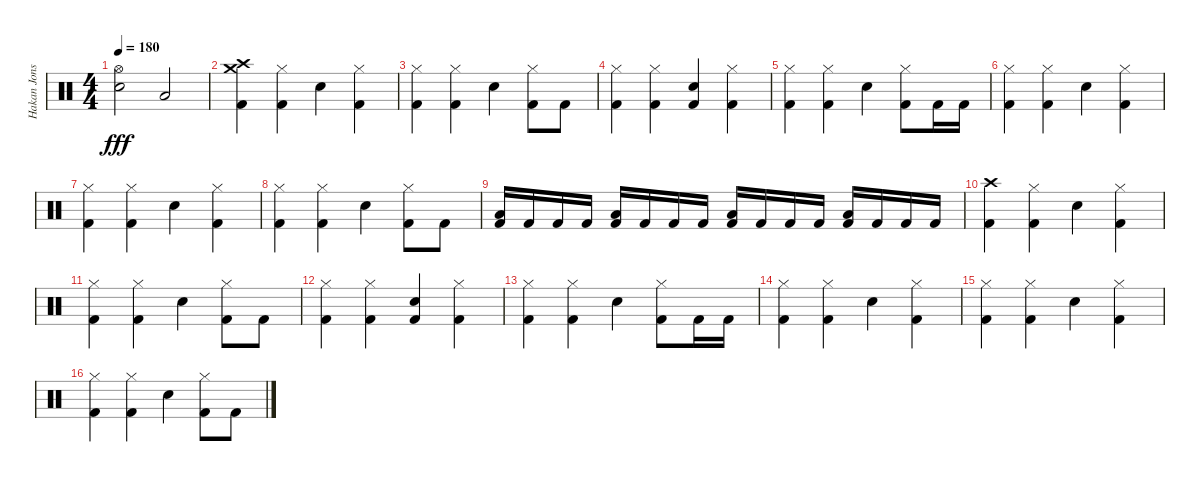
\track ("Hakan Jonsson" "Hakan Jons") {instrument percussion}
\staff {score}
\articulation defaults
\ts (4 4)
\tempo 180
\clef neutral
\ks c
("Hi-Hat (open)" "Electric Snare (hit)").2{dy fff} "Low Tom (hit)".2 |
("Crash high (hit)" "Crash medium (hit)" "Kick (hit) 2").4 ("Hi-Hat (closed)" "Kick (hit) 2").4 "Electric Snare (hit)".4 ("Hi-Hat (closed)" "Kick (hit) 2").4 |
("Hi-Hat (closed)" "Kick (hit) 2").4 ("Hi-Hat (closed)" "Kick (hit) 2").4 "Electric Snare (hit)".4 ("Hi-Hat (closed)" "Kick (hit) 2").8 "Kick (hit) 2".8 |
("Hi-Hat (closed)" "Kick (hit) 2").4 ("Hi-Hat (closed)" "Kick (hit) 2").4 ("Electric Snare (hit)" "Kick (hit) 2").4 ("Hi-Hat (closed)" "Kick (hit) 2").4 |
("Hi-Hat (closed)" "Kick (hit) 2").4 ("Hi-Hat (closed)" "Kick (hit) 2").4 "Electric Snare (hit)".4 ("Hi-Hat (closed)" "Kick (hit) 2").8 "Kick (hit) 2".16 "Kick (hit) 2".16 |
("Hi-Hat (closed)" "Kick (hit) 2").4 ("Hi-Hat (closed)" "Kick (hit) 2").4 "Electric Snare (hit)".4 ("Hi-Hat (closed)" "Kick (hit) 2").4 |
("Hi-Hat (closed)" "Kick (hit) 2").4 ("Hi-Hat (closed)" "Kick (hit) 2").4 "Electric Snare (hit)".4 ("Hi-Hat (closed)" "Kick (hit) 2").4 |
("Hi-Hat (closed)" "Kick (hit) 2").4 ("Hi-Hat (closed)" "Kick (hit) 2").4 "Electric Snare (hit)".4 ("Hi-Hat (closed)" "Kick (hit) 2").8 "Kick (hit) 2".8 |
("Low Tom (hit)" "Kick (hit) 2").16 "Kick (hit) 2".16 "Kick (hit) 2".16 "Kick (hit) 2".16 ("Low Tom (hit)" "Kick (hit) 2").16 "Kick (hit) 2".16 "Kick (hit) 2".16 "Kick (hit) 2".16 ("Low Tom (hit)" "Kick (hit) 2").16 "Kick (hit) 2".16 "Kick (hit) 2".16 "Kick (hit) 2".16 ("Low Tom (hit)" "Kick (hit) 2").16 "Kick (hit) 2".16 "Kick (hit) 2".16 "Kick (hit) 2".16 |
("Crash high (hit)" "Kick (hit) 2").4 ("Hi-Hat (closed)" "Kick (hit) 2").4 "Electric Snare (hit)".4 ("Hi-Hat (closed)" "Kick (hit) 2").4 |
("Hi-Hat (closed)" "Kick (hit) 2").4 ("Hi-Hat (closed)" "Kick (hit) 2").4 "Electric Snare (hit)".4 ("Hi-Hat (closed)" "Kick (hit) 2").8 "Kick (hit) 2".8 |
("Hi-Hat (closed)" "Kick (hit) 2").4 ("Hi-Hat (closed)" "Kick (hit) 2").4 ("Electric Snare (hit)" "Kick (hit) 2").4 ("Hi-Hat (closed)" "Kick (hit) 2").4 |
("Hi-Hat (closed)" "Kick (hit) 2").4 ("Hi-Hat (closed)" "Kick (hit) 2").4 "Electric Snare (hit)".4 ("Hi-Hat (closed)" "Kick (hit) 2").8 "Kick (hit) 2".16 "Kick (hit) 2".16 |
("Hi-Hat (closed)" "Kick (hit) 2").4 ("Hi-Hat (closed)" "Kick (hit) 2").4 "Electric Snare (hit)".4 ("Hi-Hat (closed)" "Kick (hit) 2").4 |
("Hi-Hat (closed)" "Kick (hit) 2").4 ("Hi-Hat (closed)" "Kick (hit) 2").4 "Electric Snare (hit)".4 ("Hi-Hat (closed)" "Kick (hit) 2").4 |
("Hi-Hat (closed)" "Kick (hit) 2").4 ("Hi-Hat (closed)" "Kick (hit) 2").4 "Electric Snare (hit)".4 ("Hi-Hat (closed)" "Kick (hit) 2").8 "Kick (hit) 2".8
